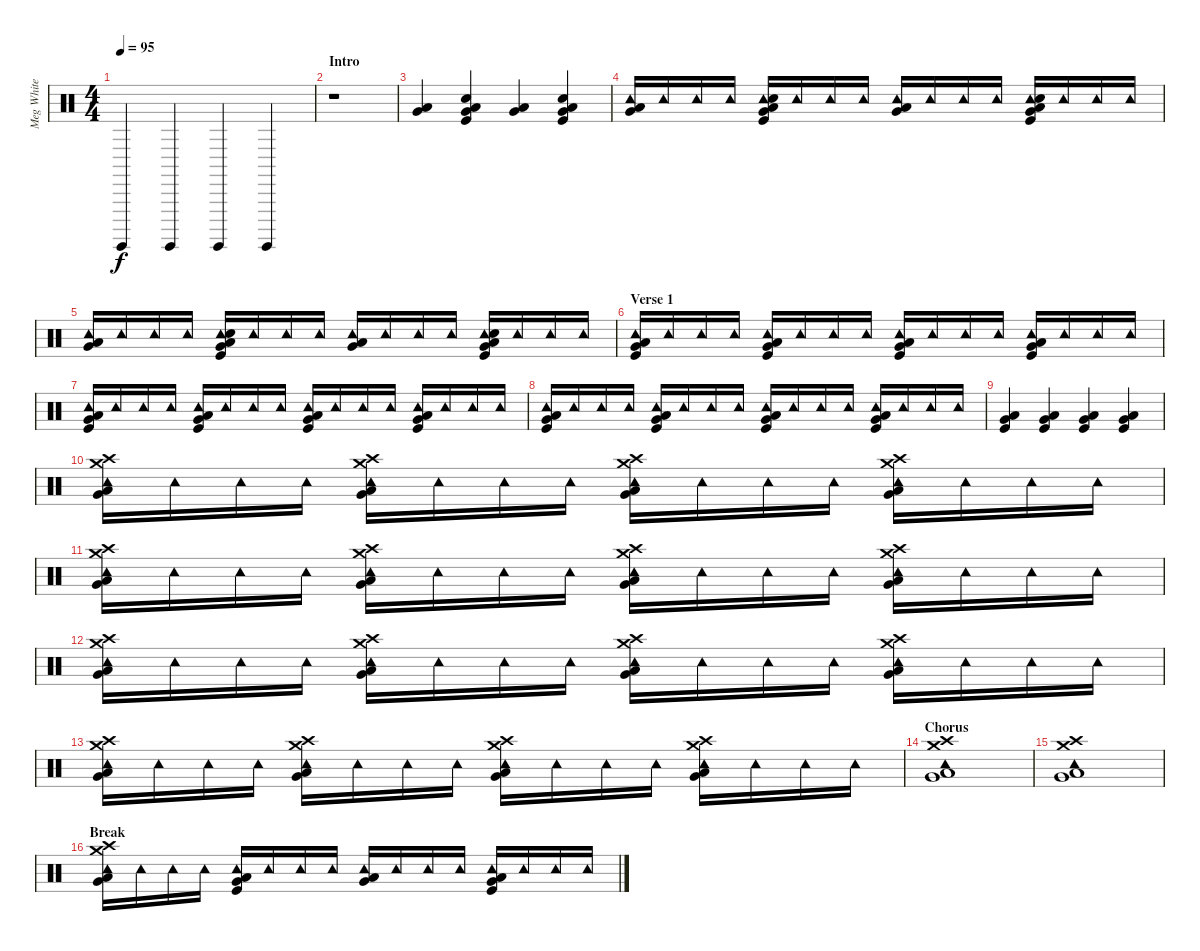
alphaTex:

\track ("Meg White" "Meg White") {instrument percussion}
\staff {score}
\articulation defaults
\ts (4 4)
\tempo 95
\clef neutral
\ks c "Surdo (hit)".4{dy f} "Surdo (hit)".4 "Surdo (hit)".4 "Surdo (hit)".4
|
\section ("" "Intro")
r.1 |
("Very Low Tom (hit)" "Low Floor Tom (hit)").4 ("Very Low Tom (hit)" "Low Floor Tom (hit)" "Electric Snare (hit)" "Kick (hit)").4 ("Very Low Tom (hit)" "Low Floor Tom (hit)").4 ("Very Low Tom (hit)" "Low Floor Tom (hit)" "Electric Snare (hit)" "Kick (hit)").4 |
("Very Low Tom (hit)" "Low Floor Tom (hit)" "Tambourine (hit)").16 "Tambourine (hit)".16 "Tambourine (hit)".16 "Tambourine (hit)".16 ("Very Low Tom (hit)" "Low Floor Tom (hit)" "Tambourine (hit)" "Electric Snare (hit)" "Kick (hit)").16 "Tambourine (hit)".16 "Tambourine (hit)".16 "Tambourine (hit)".16 ("Very Low Tom (hit)" "Low Floor Tom (hit)" "Tambourine (hit)").16 "Tambourine (hit)".16 "Tambourine (hit)".16 "Tambourine (hit)".16 ("Very Low Tom (hit)" "Low Floor Tom (hit)" "Tambourine (hit)" "Electric Snare (hit)" "Kick (hit)").16 "Tambourine (hit)".16 "Tambourine (hit)".16 "Tambourine (hit)".16 |
("Very Low Tom (hit)" "Low Floor Tom (hit)" "Tambourine (hit)").16 "Tambourine (hit)".16 "Tambourine (hit)".16 "Tambourine (hit)".16 ("Very Low Tom (hit)" "Low Floor Tom (hit)" "Tambourine (hit)" "Electric Snare (hit)" "Kick (hit)").16 "Tambourine (hit)".16 "Tambourine (hit)".16 "Tambourine (hit)".16 ("Very Low Tom (hit)" "Low Floor Tom (hit)" "Tambourine (hit)").16 "Tambourine (hit)".16 "Tambourine (hit)".16 "Tambourine (hit)".16 ("Very Low Tom (hit)" "Low Floor Tom (hit)" "Tambourine (hit)" "Electric Snare (hit)" "Kick (hit)").16 "Tambourine (hit)".16 "Tambourine (hit)".16 "Tambourine (hit)".16 |
\section ("" "Verse 1")
("Very Low Tom (hit)" "Low Floor Tom (hit)" "Tambourine (hit)" "Kick (hit)").16 "Tambourine (hit)".16 "Tambourine (hit)".16 "Tambourine (hit)".16 ("Very Low Tom (hit)" "Low Floor Tom (hit)" "Tambourine (hit)" "Kick (hit)").16 "Tambourine (hit)".16 "Tambourine (hit)".16 "Tambourine (hit)".16 ("Very Low Tom (hit)" "Low Floor Tom (hit)" "Tambourine (hit)" "Kick (hit)").16 "Tambourine (hit)".16 "Tambourine (hit)".16 "Tambourine (hit)".16 ("Very Low Tom (hit)" "Low Floor Tom (hit)" "Tambourine (hit)" "Kick (hit)").16 "Tambourine (hit)".16 "Tambourine (hit)".16 "Tambourine (hit)".16 |
("Very Low Tom (hit)" "Low Floor Tom (hit)" "Tambourine (hit)" "Kick (hit)").16 "Tambourine (hit)".16 "Tambourine (hit)".16 "Tambourine (hit)".16 ("Very Low Tom (hit)" "Low Floor Tom (hit)" "Tambourine (hit)" "Kick (hit)").16 "Tambourine (hit)".16 "Tambourine (hit)".16 "Tambourine (hit)".16 ("Very Low Tom (hit)" "Low Floor Tom (hit)" "Tambourine (hit)" "Kick (hit)").16 "Tambourine (hit)".16 "Tambourine (hit)".16 "Tambourine (hit)".16 ("Very Low Tom (hit)" "Low Floor Tom (hit)" "Tambourine (hit)" "Kick (hit)").16 "Tambourine (hit)".16 "Tambourine (hit)".16 "Tambourine (hit)".16 |
("Very Low Tom (hit)" "Low Floor Tom (hit)" "Tambourine (hit)" "Kick (hit)").16 "Tambourine (hit)".16 "Tambourine (hit)".16 "Tambourine (hit)".16 ("Very Low Tom (hit)" "Low Floor Tom (hit)" "Tambourine (hit)" "Kick (hit)").16 "Tambourine (hit)".16 "Tambourine (hit)".16 "Tambourine (hit)".16 ("Very Low Tom (hit)" "Low Floor Tom (hit)" "Tambourine (hit)" "Kick (hit)").16 "Tambourine (hit)".16 "Tambourine (hit)".16 "Tambourine (hit)".16 ("Very Low Tom (hit)" "Low Floor Tom (hit)" "Tambourine (hit)" "Kick (hit)").16 "Tambourine (hit)".16 "Tambourine (hit)".16 "Tambourine (hit)".16 |
("Very Low Tom (hit)" "Low Floor Tom (hit)" "Kick (hit)").4 ("Very Low Tom (hit)" "Low Floor Tom (hit)" "Kick (hit)").4 ("Very Low Tom (hit)" "Low Floor Tom (hit)" "Kick (hit)").4 ("Very Low Tom (hit)" "Low Floor Tom (hit)" "Kick (hit)").4 |
("Very Low Tom (hit)" "Low Floor Tom (hit)" "Tambourine (hit)" "Crash high (hit)" "Crash medium (hit)").16 "Tambourine (hit)".16 "Tambourine (hit)".16 "Tambourine (hit)".16 ("Very Low Tom (hit)" "Low Floor Tom (hit)" "Tambourine (hit)" "Crash high (hit)" "Crash medium (hit)").16 "Tambourine (hit)".16 "Tambourine (hit)".16 "Tambourine (hit)".16 ("Very Low Tom (hit)" "Low Floor Tom (hit)" "Tambourine (hit)" "Crash high (hit)" "Crash medium (hit)").16 "Tambourine (hit)".16 "Tambourine (hit)".16 "Tambourine (hit)".16 ("Very Low Tom (hit)" "Low Floor Tom (hit)" "Tambourine (hit)" "Crash high (hit)" "Crash medium (hit)").16 "Tambourine (hit)".16 "Tambourine (hit)".16 "Tambourine (hit)".16 |
("Very Low Tom (hit)" "Low Floor Tom (hit)" "Tambourine (hit)" "Crash high (hit)" "Crash medium (hit)").16 "Tambourine (hit)".16 "Tambourine (hit)".16 "Tambourine (hit)".16 ("Very Low Tom (hit)" "Low Floor Tom (hit)" "Tambourine (hit)" "Crash high (hit)" "Crash medium (hit)").16 "Tambourine (hit)".16 "Tambourine (hit)".16 "Tambourine (hit)".16 ("Very Low Tom (hit)" "Low Floor Tom (hit)" "Tambourine (hit)" "Crash high (hit)" "Crash medium (hit)").16 "Tambourine (hit)".16 "Tambourine (hit)".16 "Tambourine (hit)".16 ("Very Low Tom (hit)" "Low Floor Tom (hit)" "Tambourine (hit)" "Crash high (hit)" "Crash medium (hit)").16 "Tambourine (hit)".16 "Tambourine (hit)".16 "Tambourine (hit)".16 |
("Very Low Tom (hit)" "Low Floor Tom (hit)" "Tambourine (hit)" "Crash high (hit)" "Crash medium (hit)").16 "Tambourine (hit)".16 "Tambourine (hit)".16 "Tambourine (hit)".16 ("Very Low Tom (hit)" "Low Floor Tom (hit)" "Tambourine (hit)" "Crash high (hit)" "Crash medium (hit)").16 "Tambourine (hit)".16 "Tambourine (hit)".16 "Tambourine (hit)".16 ("Very Low Tom (hit)" "Low Floor Tom (hit)" "Tambourine (hit)" "Crash high (hit)" "Crash medium (hit)").16 "Tambourine (hit)".16 "Tambourine (hit)".16 "Tambourine (hit)".16 ("Very Low Tom (hit)" "Low Floor Tom (hit)" "Tambourine (hit)" "Crash high (hit)" "Crash medium (hit)").16 "Tambourine (hit)".16 "Tambourine (hit)".16 "Tambourine (hit)".16 |
("Very Low Tom (hit)" "Low Floor Tom (hit)" "Tambourine (hit)" "Crash high (hit)" "Crash medium (hit)").16 "Tambourine (hit)".16 "Tambourine (hit)".16 "Tambourine (hit)".16 ("Very Low Tom (hit)" "Low Floor Tom (hit)" "Tambourine (hit)" "Crash high (hit)" "Crash medium (hit)").16 "Tambourine (hit)".16 "Tambourine (hit)".16 "Tambourine (hit)".16 ("Very Low Tom (hit)" "Low Floor Tom (hit)" "Tambourine (hit)" "Crash high (hit)" "Crash medium (hit)").16 "Tambourine (hit)".16 "Tambourine (hit)".16 "Tambourine (hit)".16 ("Very Low Tom (hit)" "Low Floor Tom (hit)" "Tambourine (hit)" "Crash high (hit)" "Crash medium (hit)").16 "Tambourine (hit)".16 "Tambourine (hit)".16 "Tambourine (hit)".16 |
\section ("" "Chorus")
("Very Low Tom (hit)" "Low Floor Tom (hit)" "Tambourine (hit)" "Crash high (hit)" "Crash medium (hit)").1 |
("Very Low Tom (hit)" "Low Floor Tom (hit)" "Tambourine (hit)" "Crash high (hit)" "Crash medium (hit)").1 |
\section ("" "Break")
("Very Low Tom (hit)" "Low Floor Tom (hit)" "Tambourine (hit)" "Crash high (hit)" "Crash medium (hit)").16 "Tambourine (hit)".16 "Tambourine (hit)".16 "Tambourine (hit)".16 ("Very Low Tom (hit)" "Low Floor Tom (hit)" "Tambourine (hit)" "Kick (hit)").16 "Tambourine (hit)".16 "Tambourine (hit)".16 "Tambourine (hit)".16 ("Very Low Tom (hit)" "Low Floor Tom (hit)" "Tambourine (hit)").16 "Tambourine (hit)".16 "Tambourine (hit)".16 "Tambourine (hit)".16 ("Very Low Tom (hit)" "Low Floor Tom (hit)" "Tambourine (hit)" "Kick (hit)").16 "Tambourine (hit)".16 "Tambourine (hit)".16 "Tambourine (hit)".16
